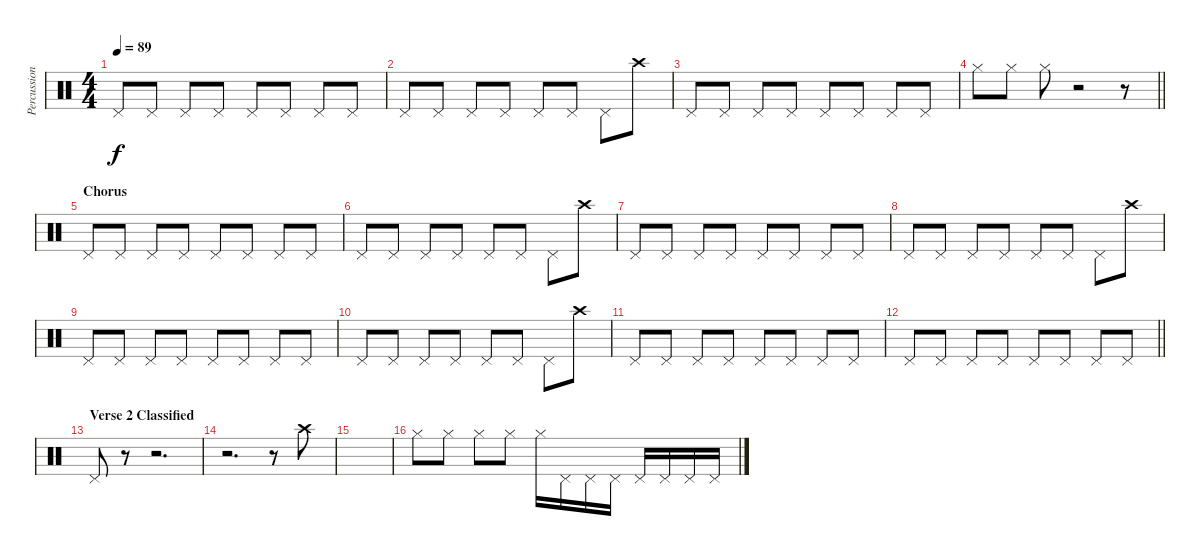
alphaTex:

\track ("Percussion" "Percussion") {instrument percussion}
\staff {score}
\articulation defaults
\ts (4 4)
\tempo 89
\clef neutral
\ks c "Pedal Hi-Hat (hit)".8{dy f} "Pedal Hi-Hat (hit)".8 "Pedal Hi-Hat (hit)".8 "Pedal Hi-Hat (hit)".8 "Pedal Hi-Hat (hit)".8 "Pedal Hi-Hat (hit)".8 "Pedal Hi-Hat (hit)".8 "Pedal Hi-Hat (hit)".8
|
"Pedal Hi-Hat (hit)".8 "Pedal Hi-Hat (hit)".8 "Pedal Hi-Hat (hit)".8 "Pedal Hi-Hat (hit)".8 "Pedal Hi-Hat (hit)".8 "Pedal Hi-Hat (hit)".8 "Pedal Hi-Hat (hit)".8 "Crash high (hit)".8 |
"Pedal Hi-Hat (hit)".8 "Pedal Hi-Hat (hit)".8 "Pedal Hi-Hat (hit)".8 "Pedal Hi-Hat (hit)".8 "Pedal Hi-Hat (hit)".8 "Pedal Hi-Hat (hit)".8 "Pedal Hi-Hat (hit)".8 "Pedal Hi-Hat (hit)".8 |
\barLineRight lightlight "Hi-Hat (closed)".8 "Hi-Hat (closed)".8 "Hi-Hat (closed)".8
r.2 r.8 |
\section ("" "Chorus")
"Pedal Hi-Hat (hit)".8 "Pedal Hi-Hat (hit)".8 "Pedal Hi-Hat (hit)".8 "Pedal Hi-Hat (hit)".8 "Pedal Hi-Hat (hit)".8 "Pedal Hi-Hat (hit)".8 "Pedal Hi-Hat (hit)".8 "Pedal Hi-Hat (hit)".8 |
"Pedal Hi-Hat (hit)".8 "Pedal Hi-Hat (hit)".8 "Pedal Hi-Hat (hit)".8 "Pedal Hi-Hat (hit)".8 "Pedal Hi-Hat (hit)".8 "Pedal Hi-Hat (hit)".8 "Pedal Hi-Hat (hit)".8 "Crash high (hit)".8 |
"Pedal Hi-Hat (hit)".8 "Pedal Hi-Hat (hit)".8 "Pedal Hi-Hat (hit)".8 "Pedal Hi-Hat (hit)".8 "Pedal Hi-Hat (hit)".8 "Pedal Hi-Hat (hit)".8 "Pedal Hi-Hat (hit)".8 "Pedal Hi-Hat (hit)".8 |
"Pedal Hi-Hat (hit)".8 "Pedal Hi-Hat (hit)".8 "Pedal Hi-Hat (hit)".8 "Pedal Hi-Hat (hit)".8 "Pedal Hi-Hat (hit)".8 "Pedal Hi-Hat (hit)".8 "Pedal Hi-Hat (hit)".8 "Crash high (hit)".8 |
"Pedal Hi-Hat (hit)".8 "Pedal Hi-Hat (hit)".8 "Pedal Hi-Hat (hit)".8 "Pedal Hi-Hat (hit)".8 "Pedal Hi-Hat (hit)".8 "Pedal Hi-Hat (hit)".8 "Pedal Hi-Hat (hit)".8 "Pedal Hi-Hat (hit)".8 |
"Pedal Hi-Hat (hit)".8 "Pedal Hi-Hat (hit)".8 "Pedal Hi-Hat (hit)".8 "Pedal Hi-Hat (hit)".8 "Pedal Hi-Hat (hit)".8 "Pedal Hi-Hat (hit)".8 "Pedal Hi-Hat (hit)".8 "Crash high (hit)".8 |
"Pedal Hi-Hat (hit)".8 "Pedal Hi-Hat (hit)".8 "Pedal Hi-Hat (hit)".8 "Pedal Hi-Hat (hit)".8 "Pedal Hi-Hat (hit)".8 "Pedal Hi-Hat (hit)".8 "Pedal Hi-Hat (hit)".8 "Pedal Hi-Hat (hit)".8 |
\barLineRight lightlight "Pedal Hi-Hat (hit)".8 "Pedal Hi-Hat (hit)".8 "Pedal Hi-Hat (hit)".8 "Pedal Hi-Hat (hit)".8 "Pedal Hi-Hat (hit)".8 "Pedal Hi-Hat (hit)".8 "Pedal Hi-Hat (hit)".8 "Pedal Hi-Hat (hit)".8
|
\section ("" "Verse 2 Classified")
"Pedal Hi-Hat (hit)".8 r.8 r.2{d} |
r.2{d} r.8 "Crash high (hit)".8 |
|
"Hi-Hat (closed)".8 "Hi-Hat (closed)".8 "Hi-Hat (closed)".8 "Hi-Hat (closed)".8 "Hi-Hat (closed)".16 "Pedal Hi-Hat (hit)".16 "Pedal Hi-Hat (hit)".16 "Pedal Hi-Hat (hit)".16 "Pedal Hi-Hat (hit)".16 "Pedal Hi-Hat (hit)".16 "Pedal Hi-Hat (hit)".16 "Pedal Hi-Hat (hit)".16
